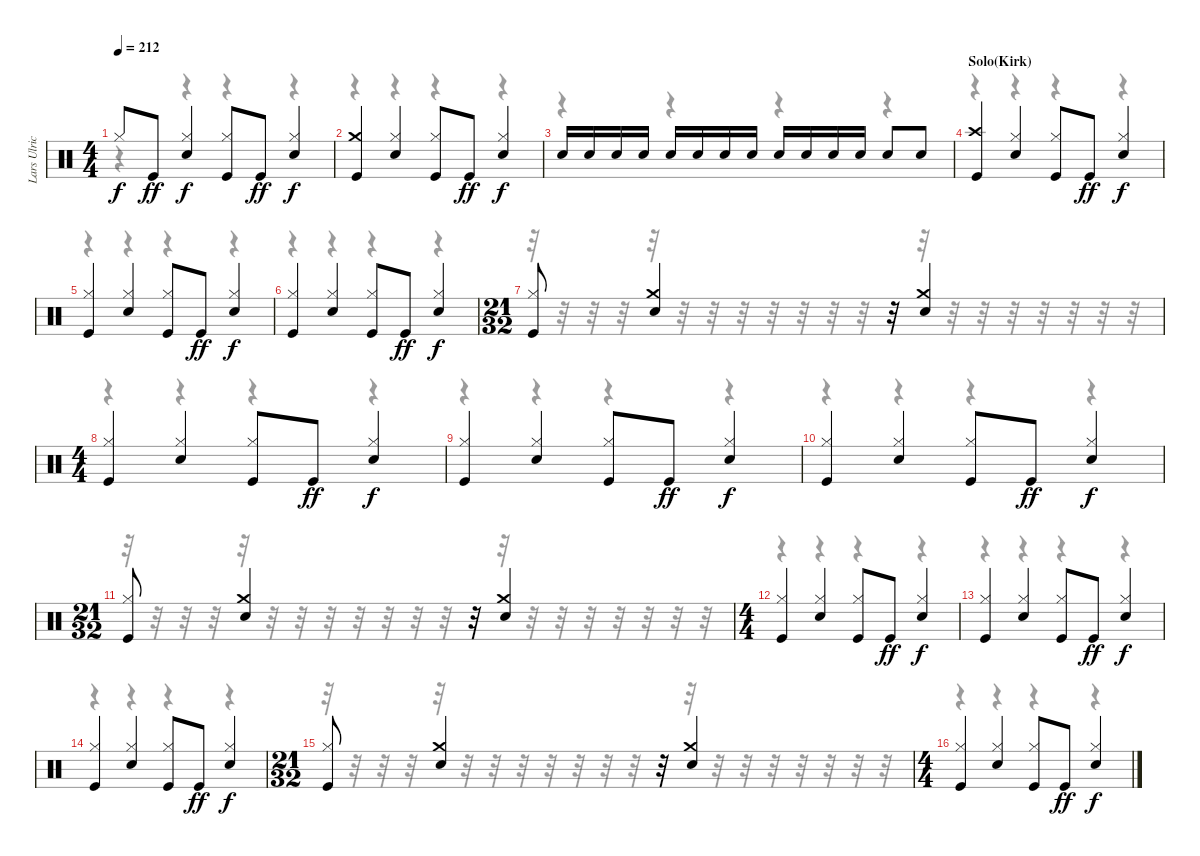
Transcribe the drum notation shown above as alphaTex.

\track ("Lars Ulrich" "Lars Ulric") {instrument percussion}
\staff {score}
\articulation defaults
\voice
\ts (4 4)
\tempo 212
\clef neutral
\ks c "Hi-Hat (closed)".8{dy f} "Kick (hit)".8{dy ff}
("Hi-Hat (closed)" "Snare (hit) 2").4{dy f} ("Hi-Hat (closed)" "Kick (hit)").8 "Kick (hit)".8{dy ff} ("Hi-Hat (closed)" "Snare (hit) 2").4{dy f} |
("Crash medium (hit)" "Kick (hit)").4 ("Hi-Hat (closed)" "Snare (hit) 2").4 ("Hi-Hat (closed)" "Kick (hit)").8 "Kick (hit)".8{dy ff} ("Hi-Hat (closed)" "Snare (hit) 2").4{dy f} |
"Snare (hit) 2".16 "Snare (hit) 2".16 "Snare (hit) 2".16 "Snare (hit) 2".16 "Snare (hit) 2".16 "Snare (hit) 2".16 "Snare (hit) 2".16 "Snare (hit) 2".16 "Snare (hit) 2".16 "Snare (hit) 2".16 "Snare (hit) 2".16 "Snare (hit) 2".16 "Snare (hit) 2".8 "Snare (hit) 2".8 |
\section ("" "Solo(Kirk)")
("Crash high (hit)" "Kick (hit)").4 ("Hi-Hat (closed)" "Snare (hit) 2").4 ("Hi-Hat (closed)" "Kick (hit)").8 "Kick (hit)".8{dy ff} ("Hi-Hat (closed)" "Snare (hit) 2").4{dy f} |
("Hi-Hat (closed)" "Kick (hit)").4 ("Hi-Hat (closed)" "Snare (hit) 2").4 ("Hi-Hat (closed)" "Kick (hit)").8 "Kick (hit)".8{dy ff} ("Hi-Hat (closed)" "Snare (hit) 2").4{dy f} |
("Hi-Hat (closed)" "Kick (hit)").4 ("Hi-Hat (closed)" "Snare (hit) 2").4 ("Hi-Hat (closed)" "Kick (hit)").8 "Kick (hit)".8{dy ff} ("Hi-Hat (closed)" "Snare (hit) 2").4{dy f} |
\ts (21 32)
("Hi-Hat (closed)" "Kick (hit)").8 ("Crash medium (hit)" "Snare (hit) 2").4 r.32 ("Crash medium (hit)" "Snare (hit) 2").4 |
\ts (4 4)
("Hi-Hat (closed)" "Kick (hit)").4 ("Hi-Hat (closed)" "Snare (hit) 2").4 ("Hi-Hat (closed)" "Kick (hit)").8 "Kick (hit)".8{dy ff} ("Hi-Hat (closed)" "Snare (hit) 2").4{dy f} |
("Hi-Hat (closed)" "Kick (hit)").4 ("Hi-Hat (closed)" "Snare (hit) 2").4 ("Hi-Hat (closed)" "Kick (hit)").8 "Kick (hit)".8{dy ff} ("Hi-Hat (closed)" "Snare (hit) 2").4{dy f} |
("Hi-Hat (closed)" "Kick (hit)").4 ("Hi-Hat (closed)" "Snare (hit) 2").4 ("Hi-Hat (closed)" "Kick (hit)").8 "Kick (hit)".8{dy ff} ("Hi-Hat (closed)" "Snare (hit) 2").4{dy f} |
\ts (21 32)
("Hi-Hat (closed)" "Kick (hit)").8 ("Crash medium (hit)" "Snare (hit) 2").4 r.32 ("Crash medium (hit)" "Snare (hit) 2").4 |
\ts (4 4)
("Hi-Hat (closed)" "Kick (hit)").4 ("Hi-Hat (closed)" "Snare (hit) 2").4 ("Hi-Hat (closed)" "Kick (hit)").8 "Kick (hit)".8{dy ff} ("Hi-Hat (closed)" "Snare (hit) 2").4{dy f} |
("Hi-Hat (closed)" "Kick (hit)").4 ("Hi-Hat (closed)" "Snare (hit) 2").4 ("Hi-Hat (closed)" "Kick (hit)").8 "Kick (hit)".8{dy ff} ("Hi-Hat (closed)" "Snare (hit) 2").4{dy f} |
("Hi-Hat (closed)" "Kick (hit)").4 ("Hi-Hat (closed)" "Snare (hit) 2").4 ("Hi-Hat (closed)" "Kick (hit)").8 "Kick (hit)".8{dy ff} ("Hi-Hat (closed)" "Snare (hit) 2").4{dy f} |
\ts (21 32)
("Hi-Hat (closed)" "Kick (hit)").8 ("Crash medium (hit)" "Snare (hit) 2").4 r.32 ("Crash medium (hit)" "Snare (hit) 2").4 |
\ts (4 4)
("Hi-Hat (closed)" "Kick (hit)").4 ("Hi-Hat (closed)" "Snare (hit) 2").4 ("Hi-Hat (closed)" "Kick (hit)").8 "Kick (hit)".8{dy ff} ("Hi-Hat (closed)" "Snare (hit) 2").4{dy f}
\voice
\clef neutral
\ottava regular
\simile none
\ks c
r.4{dy f} r.4 r.4 r.4 |
r.4 r.4 r.4 r.4 |
r.4 r.4 r.4 r.4 |
r.4 r.4 r.4 r.4 |
r.4 r.4 r.4 r.4 |
r.4 r.4 r.4 r.4 |
r.32 r.32 r.32 r.32 r.32 r.32 r.32 r.32 r.32 r.32 r.32 r.32 r.32 r.32 r.32 r.32 r.32 r.32 r.32 r.32 r.32 |
r.4 r.4 r.4 r.4 |
r.4 r.4 r.4 r.4 |
r.4 r.4 r.4 r.4 |
r.32 r.32 r.32 r.32 r.32 r.32 r.32 r.32 r.32 r.32 r.32 r.32 r.32 r.32 r.32 r.32 r.32 r.32 r.32 r.32 r.32 |
r.4 r.4 r.4 r.4 |
r.4 r.4 r.4 r.4 |
r.4 r.4 r.4 r.4 |
r.32 r.32 r.32 r.32 r.32 r.32 r.32 r.32 r.32 r.32 r.32 r.32 r.32 r.32 r.32 r.32 r.32 r.32 r.32 r.32 r.32 |
r.4 r.4 r.4 r.4
